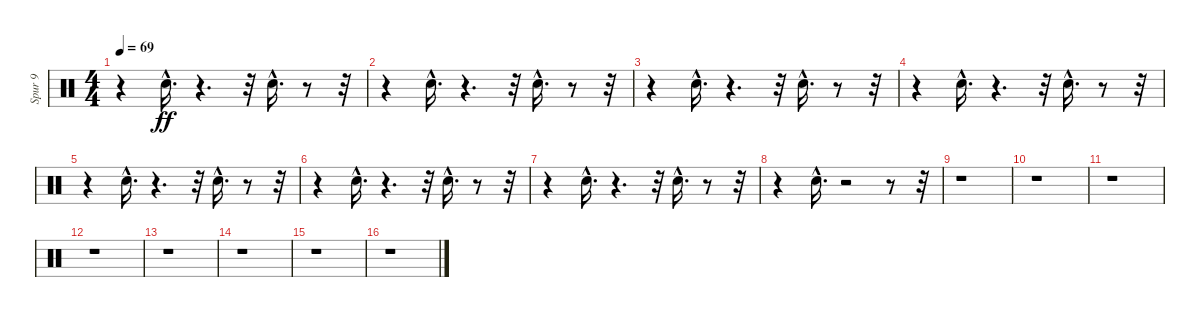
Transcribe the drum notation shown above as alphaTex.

\track ("Spur 9" "Spur 9") {instrument percussion}
\staff {score}
\articulation defaults
\ts (4 4)
\tempo 69
\clef neutral
\ks c
r.4{dy ff} "Electric Snare (hit)"{hac}.16{d} r.4{d} r.32 "Electric Snare (hit)"{hac}.16{d} r.8 r.32 |
r.4 "Electric Snare (hit)"{hac}.16{d} r.4{d} r.32 "Electric Snare (hit)"{hac}.16{d} r.8 r.32 |
r.4 "Electric Snare (hit)"{hac}.16{d} r.4{d} r.32 "Electric Snare (hit)"{hac}.16{d} r.8 r.32 |
r.4 "Electric Snare (hit)"{hac}.16{d} r.4{d} r.32 "Electric Snare (hit)"{hac}.16{d} r.8 r.32 |
r.4 "Electric Snare (hit)"{hac}.16{d} r.4{d} r.32 "Electric Snare (hit)"{hac}.16{d} r.8 r.32 |
r.4 "Electric Snare (hit)"{hac}.16{d} r.4{d} r.32 "Electric Snare (hit)"{hac}.16{d} r.8 r.32 |
r.4 "Electric Snare (hit)"{hac}.16{d} r.4{d} r.32 "Electric Snare (hit)"{hac}.16{d} r.8 r.32 |
r.4 "Electric Snare (hit)"{hac}.16{d} r.2 r.8 r.32 |
r.1 |
r.1 |
r.1 |
r.1 |
r.1 |
r.1 |
r.1 |
r.1
